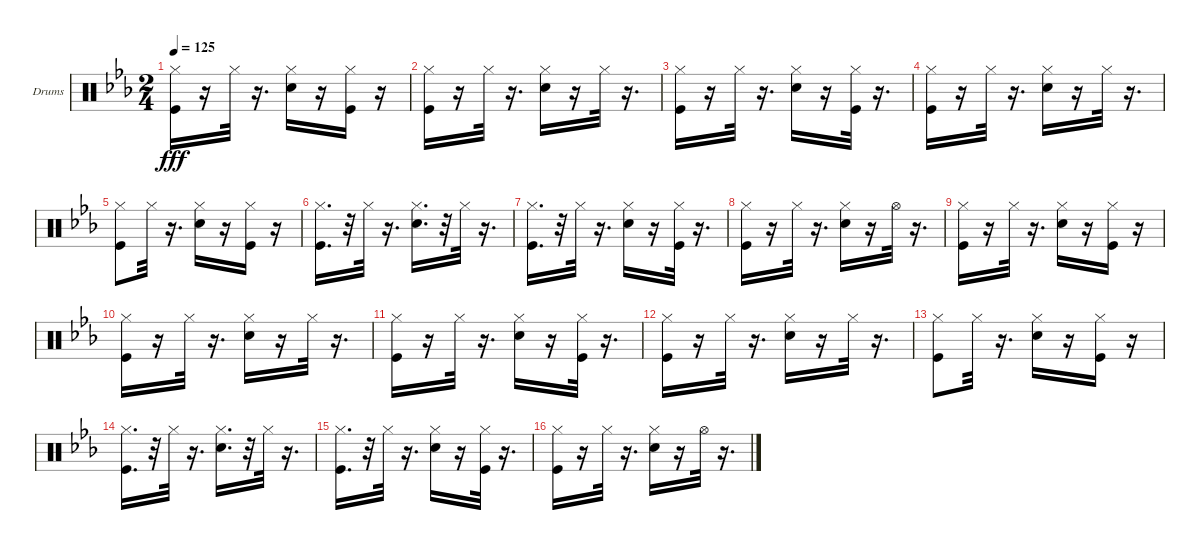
\bracketExtendMode groupsimilarinstruments
\firstSystemTrackNameOrientation horizontal
\otherSystemsTrackNameOrientation horizontal
\track ("Drumkit" "Drums") {instrument percussion}
\staff {score}
\articulation defaults
\ts (2 4)
\tempo 125
\clef neutral
\ks cminor
("Kick (hit)" "Hi-Hat (closed)").16{dy fff} r.16 "Hi-Hat (closed)".32 r.16{d} ("Snare (hit) 2" "Hi-Hat (closed)").16 r.16 ("Kick (hit)" "Hi-Hat (closed)").16 r.16 |
("Kick (hit)" "Hi-Hat (closed)").16 r.16 "Hi-Hat (closed)".32 r.16{d} ("Snare (hit) 2" "Hi-Hat (closed)").16 r.16 "Hi-Hat (closed)".32 r.16{d} |
("Kick (hit)" "Hi-Hat (closed)").16 r.16 "Hi-Hat (closed)".32 r.16{d} ("Snare (hit) 2" "Hi-Hat (closed)").16 r.16 ("Kick (hit)" "Hi-Hat (closed)").32 r.16{d} |
("Kick (hit)" "Hi-Hat (closed)").16 r.16 "Hi-Hat (closed)".32 r.16{d} ("Snare (hit) 2" "Hi-Hat (closed)").16 r.16 "Hi-Hat (closed)".32 r.16{d} |
("Kick (hit)" "Hi-Hat (closed)").8 "Hi-Hat (closed)".32 r.16{d} ("Snare (hit) 2" "Hi-Hat (closed)").16 r.16 ("Kick (hit)" "Hi-Hat (closed)").16 r.16 |
("Kick (hit)" "Hi-Hat (closed)").16{d} r.32 "Hi-Hat (closed)".32 r.16{d} ("Snare (hit) 2" "Hi-Hat (closed)").16{d} r.32 "Hi-Hat (closed)".32 r.16{d} |
("Kick (hit)" "Hi-Hat (closed)").16{d} r.32 "Hi-Hat (closed)".32 r.16{d} ("Snare (hit) 2" "Hi-Hat (closed)").16 r.16 ("Kick (hit)" "Hi-Hat (closed)").32 r.16{d} |
("Kick (hit)" "Hi-Hat (closed)").16 r.16 "Hi-Hat (closed)".32 r.16{d} ("Snare (hit) 2" "Hi-Hat (closed)").16 r.16 "Hi-Hat (open)".32 r.16{d} |
("Kick (hit)" "Hi-Hat (closed)").16 r.16 "Hi-Hat (closed)".32 r.16{d} ("Snare (hit) 2" "Hi-Hat (closed)").16 r.16 ("Kick (hit)" "Hi-Hat (closed)").16 r.16 |
("Kick (hit)" "Hi-Hat (closed)").16 r.16 "Hi-Hat (closed)".32 r.16{d} ("Snare (hit) 2" "Hi-Hat (closed)").16 r.16 "Hi-Hat (closed)".32 r.16{d} |
("Kick (hit)" "Hi-Hat (closed)").16 r.16 "Hi-Hat (closed)".32 r.16{d} ("Snare (hit) 2" "Hi-Hat (closed)").16 r.16 ("Kick (hit)" "Hi-Hat (closed)").32 r.16{d} |
("Kick (hit)" "Hi-Hat (closed)").16 r.16 "Hi-Hat (closed)".32 r.16{d} ("Snare (hit) 2" "Hi-Hat (closed)").16 r.16 "Hi-Hat (closed)".32 r.16{d} |
("Kick (hit)" "Hi-Hat (closed)").8 "Hi-Hat (closed)".32 r.16{d} ("Snare (hit) 2" "Hi-Hat (closed)").16 r.16 ("Kick (hit)" "Hi-Hat (closed)").16 r.16 |
("Kick (hit)" "Hi-Hat (closed)").16{d} r.32 "Hi-Hat (closed)".32 r.16{d} ("Snare (hit) 2" "Hi-Hat (closed)").16{d} r.32 "Hi-Hat (closed)".32 r.16{d} |
("Kick (hit)" "Hi-Hat (closed)").16{d} r.32 "Hi-Hat (closed)".32 r.16{d} ("Snare (hit) 2" "Hi-Hat (closed)").16 r.16 ("Kick (hit)" "Hi-Hat (closed)").32 r.16{d} |
("Kick (hit)" "Hi-Hat (closed)").16 r.16 "Hi-Hat (closed)".32 r.16{d} ("Snare (hit) 2" "Hi-Hat (closed)").16 r.16 "Hi-Hat (open)".32 r.16{d}
